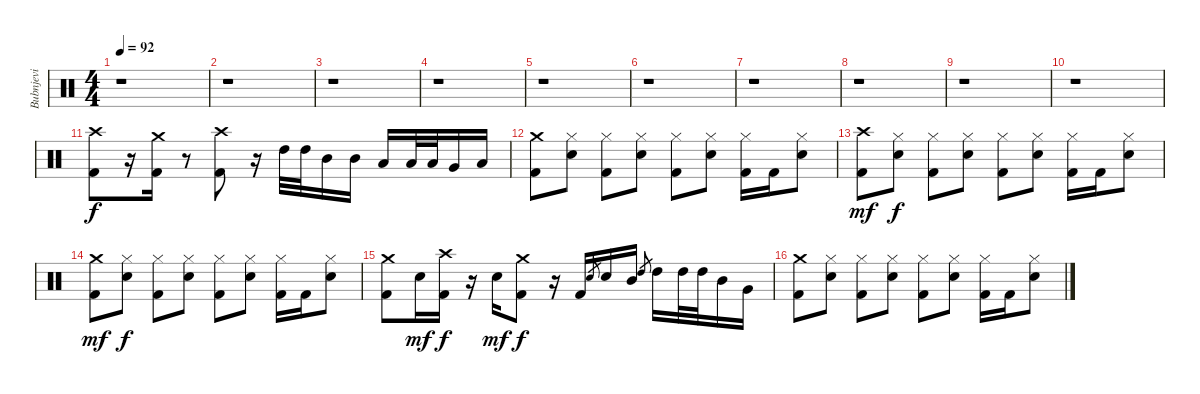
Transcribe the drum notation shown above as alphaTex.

\track ("Bubnjevi" "Bubnjevi") {instrument percussion}
\staff {score}
\articulation defaults
\ts (4 4)
\tempo 92
\clef neutral
\ks c
r.1{dy f} |
r.1 |
r.1 |
r.1 |
r.1 |
r.1 |
r.1 |
r.1 |
r.1 |
r.1 |
("Crash high (hit)" "Kick (hit) 2").8 r.16 ("Crash medium (hit)" "Kick (hit) 2").16 r.8 ("Crash high (hit)" "Kick (hit) 2").8 r.16 "High Tom (hit)".32 "High Tom (hit)".32 "Mid Tom (hit)".16 "Mid Tom (hit)".16 "Low Tom (hit)".16 "Low Tom (hit)".32 "Low Tom (hit)".32 "Very Low Tom (hit)".16 "Low Floor Tom (hit)".16 |
("Crash medium (hit)" "Kick (hit) 2").8 ("Hi-Hat (closed)" "Electric Snare (hit)").8 ("Hi-Hat (closed)" "Kick (hit) 2").8 ("Hi-Hat (closed)" "Electric Snare (hit)").8 ("Hi-Hat (closed)" "Kick (hit) 2").8 ("Hi-Hat (closed)" "Electric Snare (hit)").8 ("Hi-Hat (closed)" "Kick (hit) 2").16 "Kick (hit) 2".16 ("Hi-Hat (closed)" "Electric Snare (hit)").8 |
("Crash high (hit)" "Kick (hit) 2").8{dy mf} ("Hi-Hat (closed)" "Electric Snare (hit)").8{dy f} ("Hi-Hat (closed)" "Kick (hit) 2").8 ("Hi-Hat (closed)" "Electric Snare (hit)").8 ("Hi-Hat (closed)" "Kick (hit) 2").8 ("Hi-Hat (closed)" "Electric Snare (hit)").8 ("Hi-Hat (closed)" "Kick (hit) 2").16 "Kick (hit) 2".16 ("Hi-Hat (closed)" "Electric Snare (hit)").8 |
("Crash medium (hit)" "Kick (hit) 2").8{dy mf} ("Hi-Hat (closed)" "Electric Snare (hit)").8{dy f} ("Hi-Hat (closed)" "Kick (hit) 2").8 ("Hi-Hat (closed)" "Electric Snare (hit)").8 ("Hi-Hat (closed)" "Kick (hit) 2").8 ("Hi-Hat (closed)" "Electric Snare (hit)").8 ("Hi-Hat (closed)" "Kick (hit) 2").16 "Kick (hit) 2".16 ("Hi-Hat (closed)" "Electric Snare (hit)").8 |
("Crash medium (hit)" "Kick (hit) 2").8 "Electric Snare (hit)".16{dy mf} ("Crash high (hit)" "Kick (hit) 2").16{dy f} r.16 "Electric Snare (hit)".16{dy mf} ("Crash medium (hit)" "Kick (hit) 2").8{dy f} r.16 "Kick (hit) 2".16 "Electric Snare (hit)".8{gr} "Electric Snare (hit)".16 "Mid Tom (hit)".16 "High Tom (hit)".8{gr} "High Tom (hit)".16 "High Tom (hit)".32 "High Tom (hit)".32 "Mid Tom (hit)".16 "Very Low Tom (hit)".16 |
("Crash medium (hit)" "Kick (hit) 2").8 ("Hi-Hat (closed)" "Electric Snare (hit)").8 ("Hi-Hat (closed)" "Kick (hit) 2").8 ("Hi-Hat (closed)" "Electric Snare (hit)").8 ("Hi-Hat (closed)" "Kick (hit) 2").8 ("Hi-Hat (closed)" "Electric Snare (hit)").8 ("Hi-Hat (closed)" "Kick (hit) 2").16 "Kick (hit) 2".16 ("Hi-Hat (closed)" "Electric Snare (hit)").8
